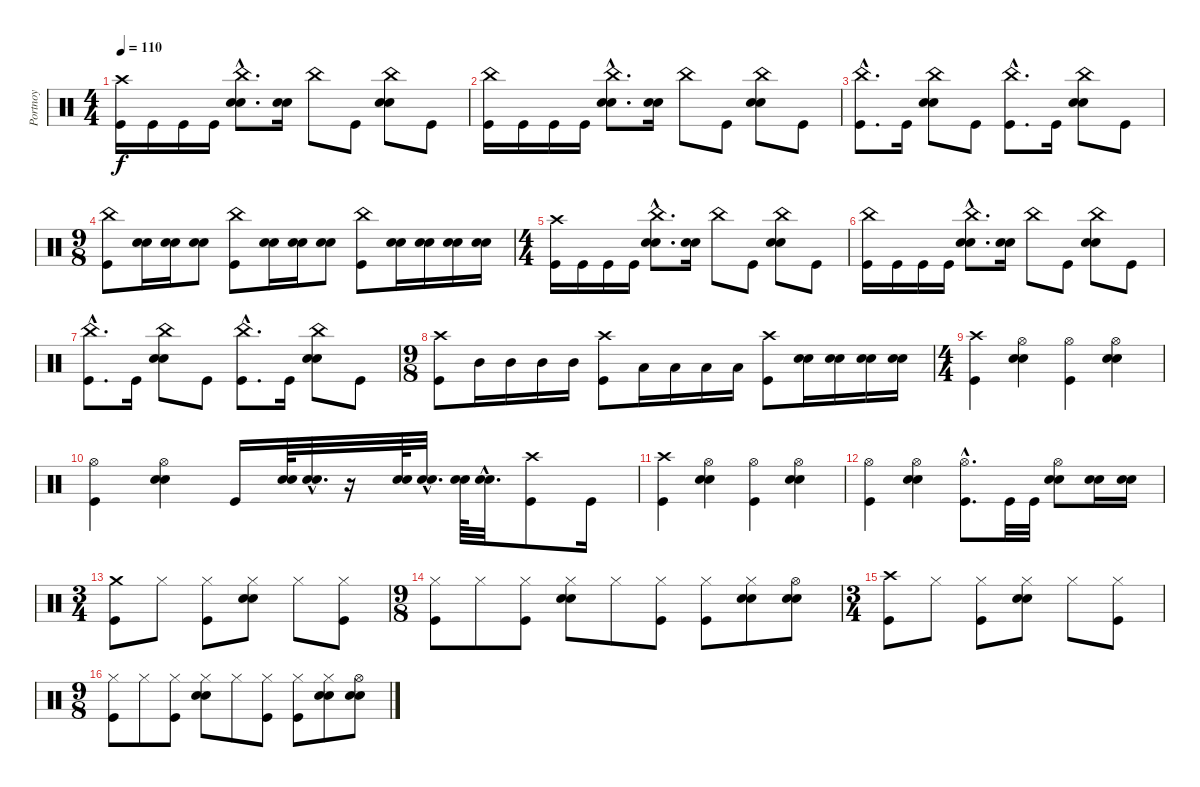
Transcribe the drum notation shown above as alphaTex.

\track ("Portnoy" "Portnoy") {instrument percussion}
\staff {score}
\articulation defaults
\ts (4 4)
\tempo 110
\clef neutral
\ks c
("Crash high (hit)" "Kick (hit)").16{dy f} "Kick (hit)".16 "Kick (hit)".16 "Kick (hit)".16 ("China (hit)"{hac} "Snare (hit) 2"{hac} "Electric Snare (hit)"{hac}).8{d} ("Snare (hit) 2" "Electric Snare (hit)").16 "China (hit)".8 "Kick (hit)".8 ("China (hit)" "Snare (hit) 2" "Electric Snare (hit)").8 "Kick (hit)".8 |
("China (hit)" "Kick (hit)").16 "Kick (hit)".16 "Kick (hit)".16 "Kick (hit)".16 ("China (hit)"{hac} "Snare (hit) 2"{hac} "Electric Snare (hit)"{hac}).8{d} ("Snare (hit) 2" "Electric Snare (hit)").16 "China (hit)".8 "Kick (hit)".8 ("China (hit)" "Snare (hit) 2" "Electric Snare (hit)").8 "Kick (hit)".8 |
("China (hit)"{hac} "Kick (hit)"{hac}).8{d} "Kick (hit)".16 ("China (hit)" "Snare (hit) 2" "Electric Snare (hit)").8 "Kick (hit)".8 ("China (hit)"{hac} "Kick (hit)"{hac}).8{d} "Kick (hit)".16 ("China (hit)" "Snare (hit) 2" "Electric Snare (hit)").8 "Kick (hit)".8 |
\ts (9 8)
("China (hit)" "Kick (hit)").8 ("Snare (hit) 2" "Electric Snare (hit)").16 ("Snare (hit) 2" "Electric Snare (hit)").16 ("Snare (hit) 2" "Electric Snare (hit)").8 ("China (hit)" "Kick (hit)").8 ("Snare (hit) 2" "Electric Snare (hit)").16 ("Snare (hit) 2" "Electric Snare (hit)").16 ("Snare (hit) 2" "Electric Snare (hit)").8 ("China (hit)" "Kick (hit)").8 ("Snare (hit) 2" "Electric Snare (hit)").16 ("Snare (hit) 2" "Electric Snare (hit)").16 ("Snare (hit) 2" "Electric Snare (hit)").16 ("Snare (hit) 2" "Electric Snare (hit)").16 |
\ts (4 4)
("Crash high (hit)" "Kick (hit)").16 "Kick (hit)".16 "Kick (hit)".16 "Kick (hit)".16 ("China (hit)"{hac} "Snare (hit) 2"{hac} "Electric Snare (hit)"{hac}).8{d} ("Snare (hit) 2" "Electric Snare (hit)").16 "China (hit)".8 "Kick (hit)".8 ("China (hit)" "Snare (hit) 2" "Electric Snare (hit)").8 "Kick (hit)".8 |
("China (hit)" "Kick (hit)").16 "Kick (hit)".16 "Kick (hit)".16 "Kick (hit)".16 ("China (hit)"{hac} "Snare (hit) 2"{hac} "Electric Snare (hit)"{hac}).8{d} ("Snare (hit) 2" "Electric Snare (hit)").16 "China (hit)".8 "Kick (hit)".8 ("China (hit)" "Snare (hit) 2" "Electric Snare (hit)").8 "Kick (hit)".8 |
("China (hit)"{hac} "Kick (hit)"{hac}).8{d} "Kick (hit)".16 ("China (hit)" "Snare (hit) 2" "Electric Snare (hit)").8 "Kick (hit)".8 ("China (hit)"{hac} "Kick (hit)"{hac}).8{d} "Kick (hit)".16 ("China (hit)" "Snare (hit) 2" "Electric Snare (hit)").8 "Kick (hit)".8 |
\ts (9 8)
("Crash high (hit)" "Kick (hit)").8 "Mid Tom (hit)".16 "Mid Tom (hit)".16 "Mid Tom (hit)".16 "Mid Tom (hit)".16 ("Crash high (hit)" "Kick (hit)").8 "Low Tom (hit)".16 "Low Tom (hit)".16 "Low Tom (hit)".16 "Low Tom (hit)".16 ("Crash high (hit)" "Kick (hit)").8 ("Snare (hit) 2" "Electric Snare (hit)").16 ("Snare (hit) 2" "Electric Snare (hit)").16 ("Snare (hit) 2" "Electric Snare (hit)").16 ("Snare (hit) 2" "Electric Snare (hit)").16 |
\ts (4 4)
("Crash high (hit)" "Kick (hit)").4 ("Hi-Hat (open)" "Snare (hit) 2" "Electric Snare (hit)").4 ("Hi-Hat (open)" "Kick (hit)").4 ("Hi-Hat (open)" "Snare (hit) 2" "Electric Snare (hit)").4 |
("Hi-Hat (open)" "Kick (hit)").4 ("Hi-Hat (open)" "Snare (hit) 2" "Electric Snare (hit)").4 "Kick (hit)".16 ("Snare (hit) 2" "Electric Snare (hit)").64 ("Snare (hit) 2"{hac} "Electric Snare (hit)"{hac}).32{d} r.16 ("Snare (hit) 2" "Electric Snare (hit)").64 ("Snare (hit) 2"{hac} "Electric Snare (hit)"{hac}).32{d} ("Snare (hit) 2" "Electric Snare (hit)").64 ("Snare (hit) 2"{hac} "Electric Snare (hit)"{hac}).32{d} ("Crash high (hit)" "Kick (hit)").8 "Kick (hit)".16 |
("Crash high (hit)" "Kick (hit)").4 ("Hi-Hat (open)" "Snare (hit) 2" "Electric Snare (hit)").4 ("Hi-Hat (open)" "Kick (hit)").4 ("Hi-Hat (open)" "Snare (hit) 2" "Electric Snare (hit)").4 |
("Hi-Hat (open)" "Kick (hit)").4 ("Hi-Hat (open)" "Snare (hit) 2" "Electric Snare (hit)").4 ("Hi-Hat (open)"{hac} "Kick (hit)"{hac}).8{d} "Kick (hit)".32 "Kick (hit)".32 ("Hi-Hat (open)" "Snare (hit) 2" "Electric Snare (hit)").8 ("Snare (hit) 2" "Electric Snare (hit)").16 ("Snare (hit) 2" "Electric Snare (hit)").16 |
\ts (3 4)
("Crash medium (hit)" "Kick (hit)").8 "Hi-Hat (closed)".8 ("Hi-Hat (closed)" "Kick (hit)").8 ("Hi-Hat (closed)" "Snare (hit) 2" "Electric Snare (hit)").8 "Hi-Hat (closed)".8 ("Hi-Hat (closed)" "Kick (hit)").8 |
\ts (9 8)
("Hi-Hat (closed)" "Kick (hit)").8 "Hi-Hat (closed)".8 ("Hi-Hat (closed)" "Kick (hit)").8 ("Hi-Hat (closed)" "Snare (hit) 2" "Electric Snare (hit)").8 "Hi-Hat (closed)".8 ("Hi-Hat (closed)" "Kick (hit)").8 ("Hi-Hat (closed)" "Kick (hit)").8 ("Hi-Hat (closed)" "Snare (hit) 2" "Electric Snare (hit)").8 ("Hi-Hat (open)" "Snare (hit) 2" "Electric Snare (hit)").8 |
\ts (3 4)
("Crash high (hit)" "Kick (hit)").8 "Hi-Hat (closed)".8 ("Hi-Hat (closed)" "Kick (hit)").8 ("Hi-Hat (closed)" "Snare (hit) 2" "Electric Snare (hit)").8 "Hi-Hat (closed)".8 ("Hi-Hat (closed)" "Kick (hit)").8 |
\ts (9 8)
("Hi-Hat (closed)" "Kick (hit)").8 "Hi-Hat (closed)".8 ("Hi-Hat (closed)" "Kick (hit)").8 ("Hi-Hat (closed)" "Snare (hit) 2" "Electric Snare (hit)").8 "Hi-Hat (closed)".8 ("Hi-Hat (closed)" "Kick (hit)").8 ("Hi-Hat (closed)" "Kick (hit)").8 ("Hi-Hat (closed)" "Snare (hit) 2" "Electric Snare (hit)").8 ("Hi-Hat (open)" "Snare (hit) 2" "Electric Snare (hit)").8
